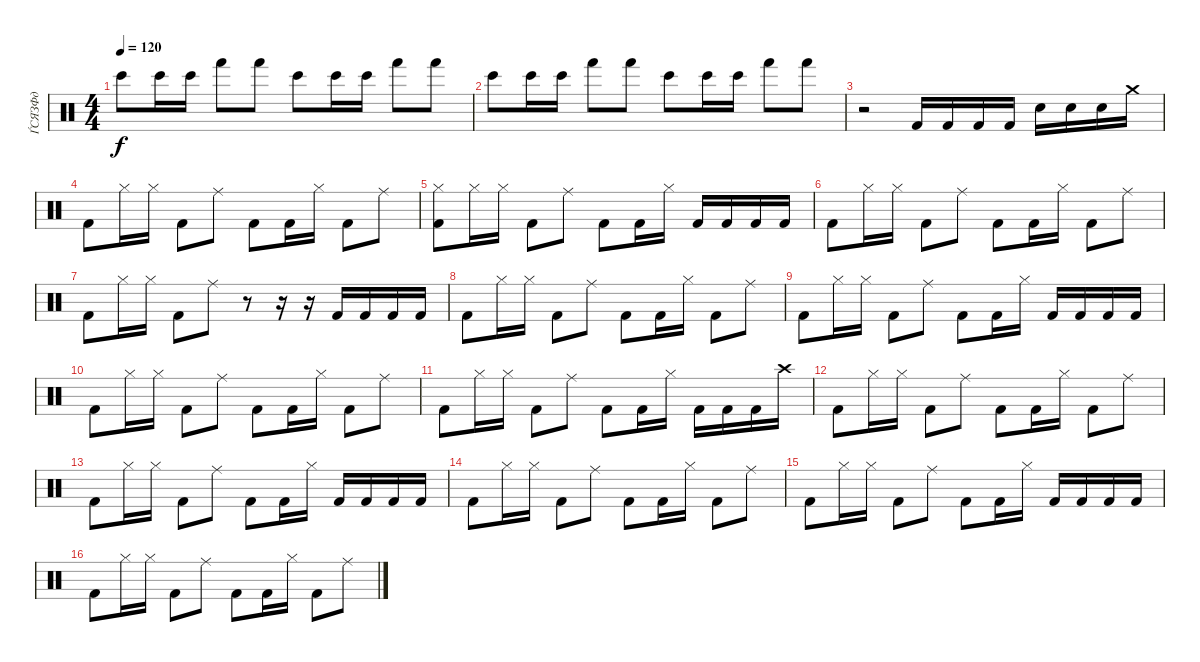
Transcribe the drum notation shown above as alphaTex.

\track ("ЃСЯЗФд" "ЃСЯЗФд") {instrument percussion}
\staff {score}
\articulation defaults
\ts (4 4)
\tempo 120
\clef neutral
\ks aminor "Bongo High (hit)".8{dy f} "Bongo High (hit)".16 "Bongo High (hit)".16 "Hand (hit)".8 "Hand (hit)".8 "Bongo High (hit)".8 "Bongo High (hit)".16 "Bongo High (hit)".16 "Hand (hit)".8 "Hand (hit)".8
|
"Bongo High (hit)".8 "Bongo High (hit)".16 "Bongo High (hit)".16 "Hand (hit)".8 "Hand (hit)".8 "Bongo High (hit)".8 "Bongo High (hit)".16 "Bongo High (hit)".16 "Hand (hit)".8 "Hand (hit)".8 |
r.2 "Kick (hit) 2".16 "Kick (hit) 2".16 "Kick (hit) 2".16 "Kick (hit) 2".16 "Snare (hit) 2".16 "Snare (hit) 2".16 "Snare (hit) 2".16 "Crash medium (hit)".16 |
"Kick (hit) 2".8 "Hi-Hat (closed)".16 "Hi-Hat (closed)".16 "Kick (hit) 2".8 "Ride (middle)".8 "Kick (hit) 2".8 "Kick (hit) 2".16 "Hi-Hat (closed)".16 "Kick (hit) 2".8 "Ride (middle)".8 |
("Kick (hit) 2" "Hi-Hat (closed)").8 "Hi-Hat (closed)".16 "Hi-Hat (closed)".16 "Kick (hit) 2".8 "Ride (middle)".8 "Kick (hit) 2".8 "Kick (hit) 2".16 "Hi-Hat (closed)".16 "Kick (hit) 2".16 "Kick (hit) 2".16 "Kick (hit) 2".16 "Kick (hit) 2".16 |
"Kick (hit) 2".8 "Hi-Hat (closed)".16 "Hi-Hat (closed)".16 "Kick (hit) 2".8 "Ride (middle)".8 "Kick (hit) 2".8 "Kick (hit) 2".16 "Hi-Hat (closed)".16 "Kick (hit) 2".8 "Ride (middle)".8 |
"Kick (hit) 2".8 "Hi-Hat (closed)".16 "Hi-Hat (closed)".16 "Kick (hit) 2".8 "Ride (middle)".8 r.8 r.16 r.16 "Kick (hit) 2".16 "Kick (hit) 2".16 "Kick (hit) 2".16 "Kick (hit) 2".16 |
"Kick (hit) 2".8 "Hi-Hat (closed)".16 "Hi-Hat (closed)".16 "Kick (hit) 2".8 "Ride (middle)".8 "Kick (hit) 2".8 "Kick (hit) 2".16 "Hi-Hat (closed)".16 "Kick (hit) 2".8 "Ride (middle)".8 |
"Kick (hit) 2".8 "Hi-Hat (closed)".16 "Hi-Hat (closed)".16 "Kick (hit) 2".8 "Ride (middle)".8 "Kick (hit) 2".8 "Kick (hit) 2".16 "Hi-Hat (closed)".16 "Kick (hit) 2".16 "Kick (hit) 2".16 "Kick (hit) 2".16 "Kick (hit) 2".16 |
"Kick (hit) 2".8 "Hi-Hat (closed)".16 "Hi-Hat (closed)".16 "Kick (hit) 2".8 "Ride (middle)".8 "Kick (hit) 2".8 "Kick (hit) 2".16 "Hi-Hat (closed)".16 "Kick (hit) 2".8 "Ride (middle)".8 |
"Kick (hit) 2".8 "Hi-Hat (closed)".16 "Hi-Hat (closed)".16 "Kick (hit) 2".8 "Ride (middle)".8 "Kick (hit) 2".8 "Kick (hit) 2".16 "Hi-Hat (closed)".16 "Kick (hit) 2".16 "Kick (hit) 2".16 "Kick (hit) 2".16 "Crash high (hit)".16 |
"Kick (hit) 2".8 "Hi-Hat (closed)".16 "Hi-Hat (closed)".16 "Kick (hit) 2".8 "Ride (middle)".8 "Kick (hit) 2".8 "Kick (hit) 2".16 "Hi-Hat (closed)".16 "Kick (hit) 2".8 "Ride (middle)".8 |
"Kick (hit) 2".8 "Hi-Hat (closed)".16 "Hi-Hat (closed)".16 "Kick (hit) 2".8 "Ride (middle)".8 "Kick (hit) 2".8 "Kick (hit) 2".16 "Hi-Hat (closed)".16 "Kick (hit) 2".16 "Kick (hit) 2".16 "Kick (hit) 2".16 "Kick (hit) 2".16 |
"Kick (hit) 2".8 "Hi-Hat (closed)".16 "Hi-Hat (closed)".16 "Kick (hit) 2".8 "Ride (middle)".8 "Kick (hit) 2".8 "Kick (hit) 2".16 "Hi-Hat (closed)".16 "Kick (hit) 2".8 "Ride (middle)".8 |
"Kick (hit) 2".8 "Hi-Hat (closed)".16 "Hi-Hat (closed)".16 "Kick (hit) 2".8 "Ride (middle)".8 "Kick (hit) 2".8 "Kick (hit) 2".16 "Hi-Hat (closed)".16 "Kick (hit) 2".16 "Kick (hit) 2".16 "Kick (hit) 2".16 "Kick (hit) 2".16 |
"Kick (hit) 2".8 "Hi-Hat (closed)".16 "Hi-Hat (closed)".16 "Kick (hit) 2".8 "Ride (middle)".8 "Kick (hit) 2".8 "Kick (hit) 2".16 "Hi-Hat (closed)".16 "Kick (hit) 2".8 "Ride (middle)".8
